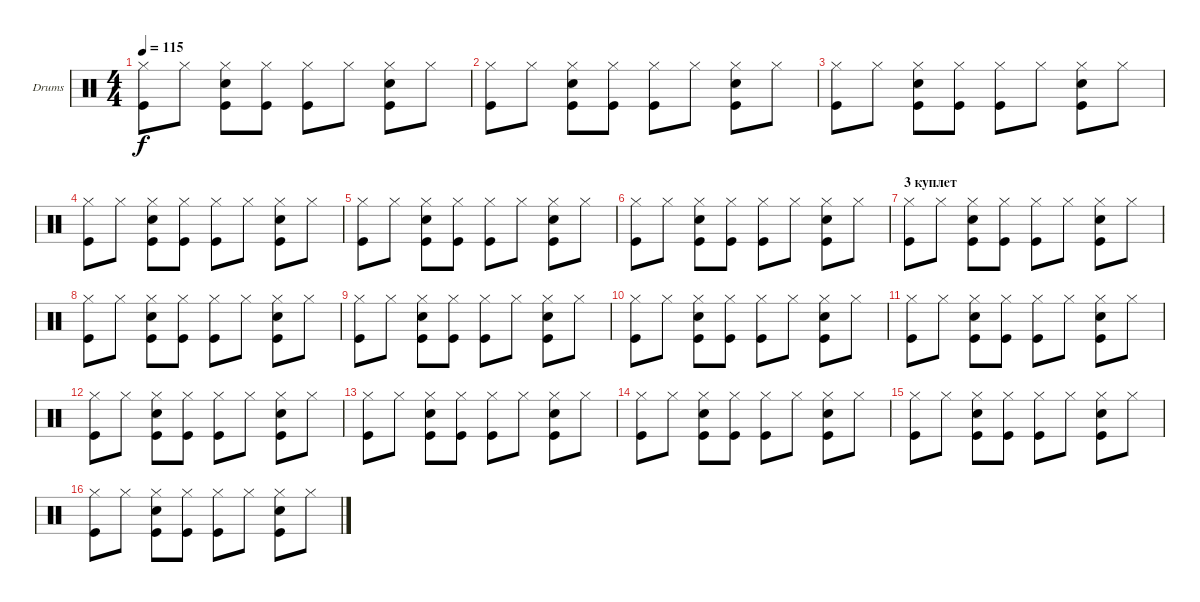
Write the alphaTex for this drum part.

\defaultSystemsLayout 4
\bracketExtendMode groupsimilarinstruments
\firstSystemTrackNameOrientation horizontal
\otherSystemsTrackNameOrientation horizontal
\track ("Drumkit" "Drums") {instrument percussion}
\staff {score}
\articulation defaults
\ts (4 4)
\tempo 115
\clef neutral
\ks c
("Hi-Hat (closed)" "Kick (hit)").8{dy f} "Hi-Hat (closed)".8 ("Hi-Hat (closed)" "Snare (hit) 2" "Kick (hit)").8 ("Hi-Hat (closed)" "Kick (hit)").8 ("Hi-Hat (closed)" "Kick (hit)").8 "Hi-Hat (closed)".8 ("Hi-Hat (closed)" "Kick (hit)" "Snare (hit) 2").8 "Hi-Hat (closed)".8 |
("Hi-Hat (closed)" "Kick (hit)").8 "Hi-Hat (closed)".8 ("Hi-Hat (closed)" "Snare (hit) 2" "Kick (hit)").8 ("Hi-Hat (closed)" "Kick (hit)").8 ("Hi-Hat (closed)" "Kick (hit)").8 "Hi-Hat (closed)".8 ("Hi-Hat (closed)" "Kick (hit)" "Snare (hit) 2").8 "Hi-Hat (closed)".8 |
("Hi-Hat (closed)" "Kick (hit)").8 "Hi-Hat (closed)".8 ("Hi-Hat (closed)" "Snare (hit) 2" "Kick (hit)").8 ("Hi-Hat (closed)" "Kick (hit)").8 ("Hi-Hat (closed)" "Kick (hit)").8 "Hi-Hat (closed)".8 ("Hi-Hat (closed)" "Kick (hit)" "Snare (hit) 2").8 "Hi-Hat (closed)".8 |
("Hi-Hat (closed)" "Kick (hit)").8 "Hi-Hat (closed)".8 ("Hi-Hat (closed)" "Snare (hit) 2" "Kick (hit)").8 ("Hi-Hat (closed)" "Kick (hit)").8 ("Hi-Hat (closed)" "Kick (hit)").8 "Hi-Hat (closed)".8 ("Hi-Hat (closed)" "Kick (hit)" "Snare (hit) 2").8 "Hi-Hat (closed)".8 |
("Hi-Hat (closed)" "Kick (hit)").8 "Hi-Hat (closed)".8 ("Hi-Hat (closed)" "Snare (hit) 2" "Kick (hit)").8 ("Hi-Hat (closed)" "Kick (hit)").8 ("Hi-Hat (closed)" "Kick (hit)").8 "Hi-Hat (closed)".8 ("Hi-Hat (closed)" "Kick (hit)" "Snare (hit) 2").8 "Hi-Hat (closed)".8 |
("Hi-Hat (closed)" "Kick (hit)").8 "Hi-Hat (closed)".8 ("Hi-Hat (closed)" "Snare (hit) 2" "Kick (hit)").8 ("Hi-Hat (closed)" "Kick (hit)").8 ("Hi-Hat (closed)" "Kick (hit)").8 "Hi-Hat (closed)".8 ("Hi-Hat (closed)" "Kick (hit)" "Snare (hit) 2").8 "Hi-Hat (closed)".8 |
\section ("" "3 куплет")
("Hi-Hat (closed)" "Kick (hit)").8 "Hi-Hat (closed)".8 ("Hi-Hat (closed)" "Snare (hit) 2" "Kick (hit)").8 ("Hi-Hat (closed)" "Kick (hit)").8 ("Hi-Hat (closed)" "Kick (hit)").8 "Hi-Hat (closed)".8 ("Hi-Hat (closed)" "Kick (hit)" "Snare (hit) 2").8 "Hi-Hat (closed)".8 |
("Hi-Hat (closed)" "Kick (hit)").8 "Hi-Hat (closed)".8 ("Hi-Hat (closed)" "Snare (hit) 2" "Kick (hit)").8 ("Hi-Hat (closed)" "Kick (hit)").8 ("Hi-Hat (closed)" "Kick (hit)").8 "Hi-Hat (closed)".8 ("Hi-Hat (closed)" "Kick (hit)" "Snare (hit) 2").8 "Hi-Hat (closed)".8 |
("Hi-Hat (closed)" "Kick (hit)").8 "Hi-Hat (closed)".8 ("Hi-Hat (closed)" "Snare (hit) 2" "Kick (hit)").8 ("Hi-Hat (closed)" "Kick (hit)").8 ("Hi-Hat (closed)" "Kick (hit)").8 "Hi-Hat (closed)".8 ("Hi-Hat (closed)" "Kick (hit)" "Snare (hit) 2").8 "Hi-Hat (closed)".8 |
("Hi-Hat (closed)" "Kick (hit)").8 "Hi-Hat (closed)".8 ("Hi-Hat (closed)" "Snare (hit) 2" "Kick (hit)").8 ("Hi-Hat (closed)" "Kick (hit)").8 ("Hi-Hat (closed)" "Kick (hit)").8 "Hi-Hat (closed)".8 ("Hi-Hat (closed)" "Kick (hit)" "Snare (hit) 2").8 "Hi-Hat (closed)".8 |
("Hi-Hat (closed)" "Kick (hit)").8 "Hi-Hat (closed)".8 ("Hi-Hat (closed)" "Snare (hit) 2" "Kick (hit)").8 ("Hi-Hat (closed)" "Kick (hit)").8 ("Hi-Hat (closed)" "Kick (hit)").8 "Hi-Hat (closed)".8 ("Hi-Hat (closed)" "Kick (hit)" "Snare (hit) 2").8 "Hi-Hat (closed)".8 |
("Hi-Hat (closed)" "Kick (hit)").8 "Hi-Hat (closed)".8 ("Hi-Hat (closed)" "Snare (hit) 2" "Kick (hit)").8 ("Hi-Hat (closed)" "Kick (hit)").8 ("Hi-Hat (closed)" "Kick (hit)").8 "Hi-Hat (closed)".8 ("Hi-Hat (closed)" "Kick (hit)" "Snare (hit) 2").8 "Hi-Hat (closed)".8 |
("Hi-Hat (closed)" "Kick (hit)").8 "Hi-Hat (closed)".8 ("Hi-Hat (closed)" "Snare (hit) 2" "Kick (hit)").8 ("Hi-Hat (closed)" "Kick (hit)").8 ("Hi-Hat (closed)" "Kick (hit)").8 "Hi-Hat (closed)".8 ("Hi-Hat (closed)" "Kick (hit)" "Snare (hit) 2").8 "Hi-Hat (closed)".8 |
("Hi-Hat (closed)" "Kick (hit)").8 "Hi-Hat (closed)".8 ("Hi-Hat (closed)" "Snare (hit) 2" "Kick (hit)").8 ("Hi-Hat (closed)" "Kick (hit)").8 ("Hi-Hat (closed)" "Kick (hit)").8 "Hi-Hat (closed)".8 ("Hi-Hat (closed)" "Kick (hit)" "Snare (hit) 2").8 "Hi-Hat (closed)".8 |
("Hi-Hat (closed)" "Kick (hit)").8 "Hi-Hat (closed)".8 ("Hi-Hat (closed)" "Snare (hit) 2" "Kick (hit)").8 ("Hi-Hat (closed)" "Kick (hit)").8 ("Hi-Hat (closed)" "Kick (hit)").8 "Hi-Hat (closed)".8 ("Hi-Hat (closed)" "Kick (hit)" "Snare (hit) 2").8 "Hi-Hat (closed)".8 |
("Hi-Hat (closed)" "Kick (hit)").8 "Hi-Hat (closed)".8 ("Hi-Hat (closed)" "Snare (hit) 2" "Kick (hit)").8 ("Hi-Hat (closed)" "Kick (hit)").8 ("Hi-Hat (closed)" "Kick (hit)").8 "Hi-Hat (closed)".8 ("Hi-Hat (closed)" "Kick (hit)" "Snare (hit) 2").8 "Hi-Hat (closed)".8
